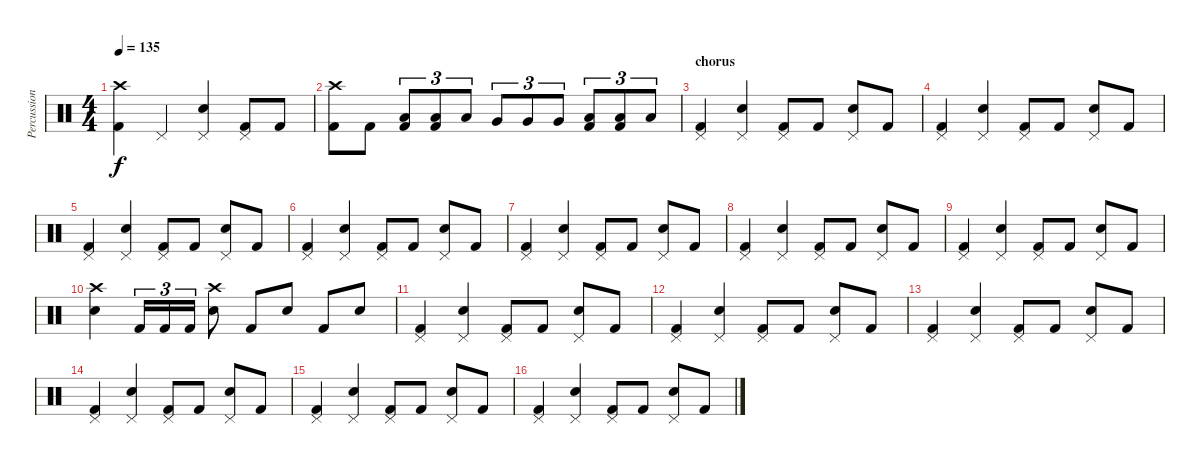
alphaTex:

\track ("Percussion" "Percussion") {instrument percussion}
\staff {score}
\articulation defaults
\ts (4 4)
\tempo 135
\clef neutral
\ks c
("Crash high (hit)" "Kick (hit) 2").4{dy f} "Pedal Hi-Hat (hit)".4 ("Pedal Hi-Hat (hit)" "Electric Snare (hit)").4 ("Pedal Hi-Hat (hit)" "Kick (hit) 2").8 "Kick (hit) 2".8 |
("Crash high (hit)" "Kick (hit) 2").8 "Kick (hit) 2".8 ("Low Floor Tom (hit)" "Kick (hit) 2").8{tu (3 2)} ("Low Floor Tom (hit)" "Kick (hit) 2").8{tu (3 2)} "Low Floor Tom (hit)".8{tu (3 2)} "Very Low Tom (hit)".8{tu (3 2)} "Very Low Tom (hit)".8{tu (3 2)} "Very Low Tom (hit)".8{tu (3 2)} ("Low Tom (hit)" "Kick (hit) 2").8{tu (3 2)} ("Low Tom (hit)" "Kick (hit) 2").8{tu (3 2)} "Low Tom (hit)".8{tu (3 2)} |
\section ("" "chorus")
("Pedal Hi-Hat (hit)" "Kick (hit) 2").4 ("Pedal Hi-Hat (hit)" "Electric Snare (hit)").4 ("Pedal Hi-Hat (hit)" "Kick (hit) 2").8 "Kick (hit) 2".8 ("Pedal Hi-Hat (hit)" "Electric Snare (hit)").8 "Kick (hit) 2".8 |
("Pedal Hi-Hat (hit)" "Kick (hit) 2").4 ("Pedal Hi-Hat (hit)" "Electric Snare (hit)").4 ("Pedal Hi-Hat (hit)" "Kick (hit) 2").8 "Kick (hit) 2".8 ("Pedal Hi-Hat (hit)" "Electric Snare (hit)").8 "Kick (hit) 2".8 |
("Pedal Hi-Hat (hit)" "Kick (hit) 2").4 ("Pedal Hi-Hat (hit)" "Electric Snare (hit)").4 ("Pedal Hi-Hat (hit)" "Kick (hit) 2").8 "Kick (hit) 2".8 ("Pedal Hi-Hat (hit)" "Electric Snare (hit)").8 "Kick (hit) 2".8 |
("Pedal Hi-Hat (hit)" "Kick (hit) 2").4 ("Pedal Hi-Hat (hit)" "Electric Snare (hit)").4 ("Pedal Hi-Hat (hit)" "Kick (hit) 2").8 "Kick (hit) 2".8 ("Pedal Hi-Hat (hit)" "Electric Snare (hit)").8 "Kick (hit) 2".8 |
("Pedal Hi-Hat (hit)" "Kick (hit) 2").4 ("Pedal Hi-Hat (hit)" "Electric Snare (hit)").4 ("Pedal Hi-Hat (hit)" "Kick (hit) 2").8 "Kick (hit) 2".8 ("Pedal Hi-Hat (hit)" "Electric Snare (hit)").8 "Kick (hit) 2".8 |
("Pedal Hi-Hat (hit)" "Kick (hit) 2").4 ("Pedal Hi-Hat (hit)" "Electric Snare (hit)").4 ("Pedal Hi-Hat (hit)" "Kick (hit) 2").8 "Kick (hit) 2".8 ("Pedal Hi-Hat (hit)" "Electric Snare (hit)").8 "Kick (hit) 2".8 |
("Pedal Hi-Hat (hit)" "Kick (hit) 2").4 ("Pedal Hi-Hat (hit)" "Electric Snare (hit)").4 ("Pedal Hi-Hat (hit)" "Kick (hit) 2").8 "Kick (hit) 2".8 ("Pedal Hi-Hat (hit)" "Electric Snare (hit)").8 "Kick (hit) 2".8 |
("Crash high (hit)" "Electric Snare (hit)").4 "Kick (hit) 2".16{tu (3 2)} "Kick (hit) 2".16{tu (3 2)} "Kick (hit) 2".16{tu (3 2)} ("Crash high (hit)" "Electric Snare (hit)").8 "Kick (hit) 2".8 "Electric Snare (hit)".8 "Kick (hit) 2".8 "Electric Snare (hit)".8 |
("Pedal Hi-Hat (hit)" "Kick (hit) 2").4 ("Pedal Hi-Hat (hit)" "Electric Snare (hit)").4 ("Pedal Hi-Hat (hit)" "Kick (hit) 2").8 "Kick (hit) 2".8 ("Pedal Hi-Hat (hit)" "Electric Snare (hit)").8 "Kick (hit) 2".8 |
("Pedal Hi-Hat (hit)" "Kick (hit) 2").4 ("Pedal Hi-Hat (hit)" "Electric Snare (hit)").4 ("Pedal Hi-Hat (hit)" "Kick (hit) 2").8 "Kick (hit) 2".8 ("Pedal Hi-Hat (hit)" "Electric Snare (hit)").8 "Kick (hit) 2".8 |
("Pedal Hi-Hat (hit)" "Kick (hit) 2").4 ("Pedal Hi-Hat (hit)" "Electric Snare (hit)").4 ("Pedal Hi-Hat (hit)" "Kick (hit) 2").8 "Kick (hit) 2".8 ("Pedal Hi-Hat (hit)" "Electric Snare (hit)").8 "Kick (hit) 2".8 |
("Pedal Hi-Hat (hit)" "Kick (hit) 2").4 ("Pedal Hi-Hat (hit)" "Electric Snare (hit)").4 ("Pedal Hi-Hat (hit)" "Kick (hit) 2").8 "Kick (hit) 2".8 ("Pedal Hi-Hat (hit)" "Electric Snare (hit)").8 "Kick (hit) 2".8 |
("Pedal Hi-Hat (hit)" "Kick (hit) 2").4 ("Pedal Hi-Hat (hit)" "Electric Snare (hit)").4 ("Pedal Hi-Hat (hit)" "Kick (hit) 2").8 "Kick (hit) 2".8 ("Pedal Hi-Hat (hit)" "Electric Snare (hit)").8 "Kick (hit) 2".8 |
("Pedal Hi-Hat (hit)" "Kick (hit) 2").4 ("Pedal Hi-Hat (hit)" "Electric Snare (hit)").4 ("Pedal Hi-Hat (hit)" "Kick (hit) 2").8 "Kick (hit) 2".8 ("Pedal Hi-Hat (hit)" "Electric Snare (hit)").8 "Kick (hit) 2".8
